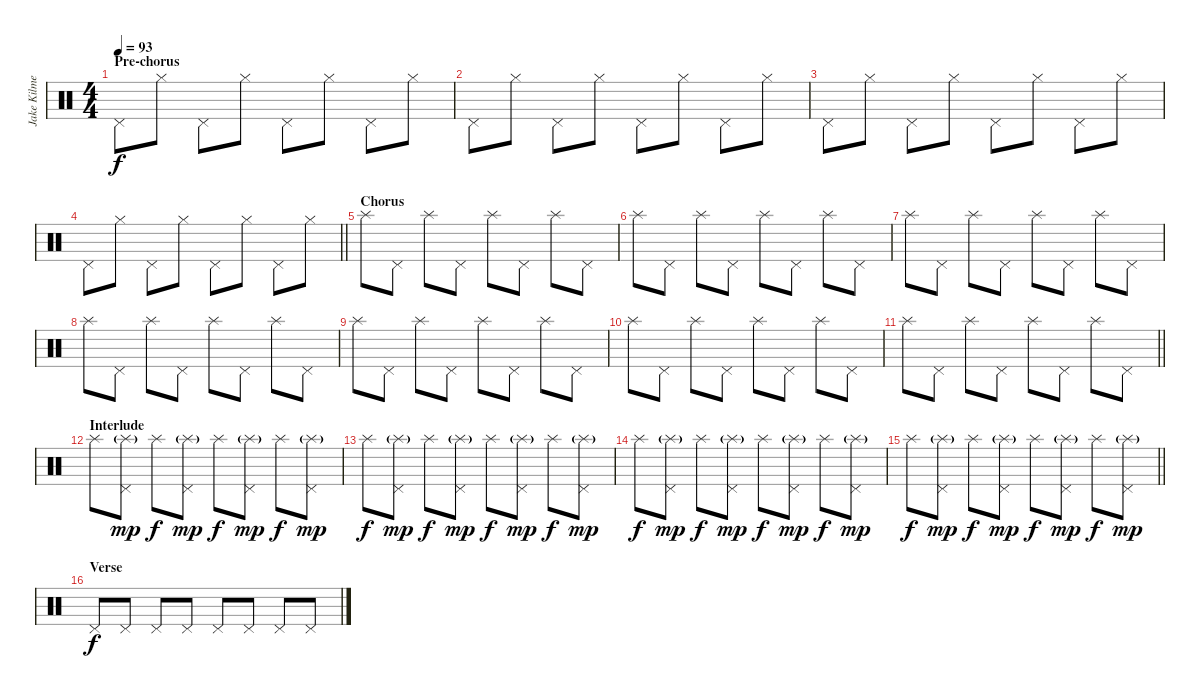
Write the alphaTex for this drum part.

\track ("Jake Kilmer (Drums)" "Jake Kilme") {instrument percussion}
\staff {score}
\articulation defaults
\ts (4 4)
\section ("" "Pre-chorus")
\tempo 93
\clef neutral
\ks c "Pedal Hi-Hat (hit)".8{dy f} "Hi-Hat (closed)".8 "Pedal Hi-Hat (hit)".8 "Hi-Hat (closed)".8 "Pedal Hi-Hat (hit)".8 "Hi-Hat (closed)".8 "Pedal Hi-Hat (hit)".8 "Hi-Hat (closed)".8
|
"Pedal Hi-Hat (hit)".8 "Hi-Hat (closed)".8 "Pedal Hi-Hat (hit)".8 "Hi-Hat (closed)".8 "Pedal Hi-Hat (hit)".8 "Hi-Hat (closed)".8 "Pedal Hi-Hat (hit)".8 "Hi-Hat (closed)".8 |
"Pedal Hi-Hat (hit)".8 "Hi-Hat (closed)".8 "Pedal Hi-Hat (hit)".8 "Hi-Hat (closed)".8 "Pedal Hi-Hat (hit)".8 "Hi-Hat (closed)".8 "Pedal Hi-Hat (hit)".8 "Hi-Hat (closed)".8 |
\barLineRight lightlight "Pedal Hi-Hat (hit)".8 "Hi-Hat (closed)".8 "Pedal Hi-Hat (hit)".8 "Hi-Hat (closed)".8 "Pedal Hi-Hat (hit)".8 "Hi-Hat (closed)".8 "Pedal Hi-Hat (hit)".8 "Hi-Hat (closed)".8
|
\section ("" "Chorus")
"Splash (hit)".8 "Pedal Hi-Hat (hit)".8 "Splash (hit)".8 "Pedal Hi-Hat (hit)".8 "Splash (hit)".8 "Pedal Hi-Hat (hit)".8 "Splash (hit)".8 "Pedal Hi-Hat (hit)".8 |
"Splash (hit)".8 "Pedal Hi-Hat (hit)".8 "Splash (hit)".8 "Pedal Hi-Hat (hit)".8 "Splash (hit)".8 "Pedal Hi-Hat (hit)".8 "Splash (hit)".8 "Pedal Hi-Hat (hit)".8 |
"Splash (hit)".8 "Pedal Hi-Hat (hit)".8 "Splash (hit)".8 "Pedal Hi-Hat (hit)".8 "Splash (hit)".8 "Pedal Hi-Hat (hit)".8 "Splash (hit)".8 "Pedal Hi-Hat (hit)".8 |
"Splash (hit)".8 "Pedal Hi-Hat (hit)".8 "Splash (hit)".8 "Pedal Hi-Hat (hit)".8 "Splash (hit)".8 "Pedal Hi-Hat (hit)".8 "Splash (hit)".8 "Pedal Hi-Hat (hit)".8 |
"Splash (hit)".8 "Pedal Hi-Hat (hit)".8 "Splash (hit)".8 "Pedal Hi-Hat (hit)".8 "Splash (hit)".8 "Pedal Hi-Hat (hit)".8 "Splash (hit)".8 "Pedal Hi-Hat (hit)".8 |
"Splash (hit)".8 "Pedal Hi-Hat (hit)".8 "Splash (hit)".8 "Pedal Hi-Hat (hit)".8 "Splash (hit)".8 "Pedal Hi-Hat (hit)".8 "Splash (hit)".8 "Pedal Hi-Hat (hit)".8 |
\barLineRight lightlight "Splash (hit)".8 "Pedal Hi-Hat (hit)".8 "Splash (hit)".8 "Pedal Hi-Hat (hit)".8 "Splash (hit)".8 "Pedal Hi-Hat (hit)".8 "Splash (hit)".8 "Pedal Hi-Hat (hit)".8
|
\section ("" "Interlude")
"Splash (hit)".8 ("Splash (hit)"{g} "Pedal Hi-Hat (hit)").8{dy mp} "Splash (hit)".8{dy f} ("Splash (hit)"{g} "Pedal Hi-Hat (hit)").8{dy mp} "Splash (hit)".8{dy f} ("Splash (hit)"{g} "Pedal Hi-Hat (hit)").8{dy mp} "Splash (hit)".8{dy f} ("Splash (hit)"{g} "Pedal Hi-Hat (hit)").8{dy mp} |
"Splash (hit)".8{dy f} ("Splash (hit)"{g} "Pedal Hi-Hat (hit)").8{dy mp} "Splash (hit)".8{dy f} ("Splash (hit)"{g} "Pedal Hi-Hat (hit)").8{dy mp} "Splash (hit)".8{dy f} ("Splash (hit)"{g} "Pedal Hi-Hat (hit)").8{dy mp} "Splash (hit)".8{dy f} ("Splash (hit)"{g} "Pedal Hi-Hat (hit)").8{dy mp} |
"Splash (hit)".8{dy f} ("Splash (hit)"{g} "Pedal Hi-Hat (hit)").8{dy mp} "Splash (hit)".8{dy f} ("Splash (hit)"{g} "Pedal Hi-Hat (hit)").8{dy mp} "Splash (hit)".8{dy f} ("Splash (hit)"{g} "Pedal Hi-Hat (hit)").8{dy mp} "Splash (hit)".8{dy f} ("Splash (hit)"{g} "Pedal Hi-Hat (hit)").8{dy mp} |
\barLineRight lightlight "Splash (hit)".8{dy f}
("Splash (hit)"{g} "Pedal Hi-Hat (hit)").8{dy mp} "Splash (hit)".8{dy f} ("Splash (hit)"{g} "Pedal Hi-Hat (hit)").8{dy mp} "Splash (hit)".8{dy f} ("Splash (hit)"{g} "Pedal Hi-Hat (hit)").8{dy mp} "Splash (hit)".8{dy f} ("Splash (hit)"{g} "Pedal Hi-Hat (hit)").8{dy mp} |
\section ("" "Verse")
"Pedal Hi-Hat (hit)".8{dy f} "Pedal Hi-Hat (hit)".8 "Pedal Hi-Hat (hit)".8 "Pedal Hi-Hat (hit)".8 "Pedal Hi-Hat (hit)".8 "Pedal Hi-Hat (hit)".8 "Pedal Hi-Hat (hit)".8 "Pedal Hi-Hat (hit)".8
